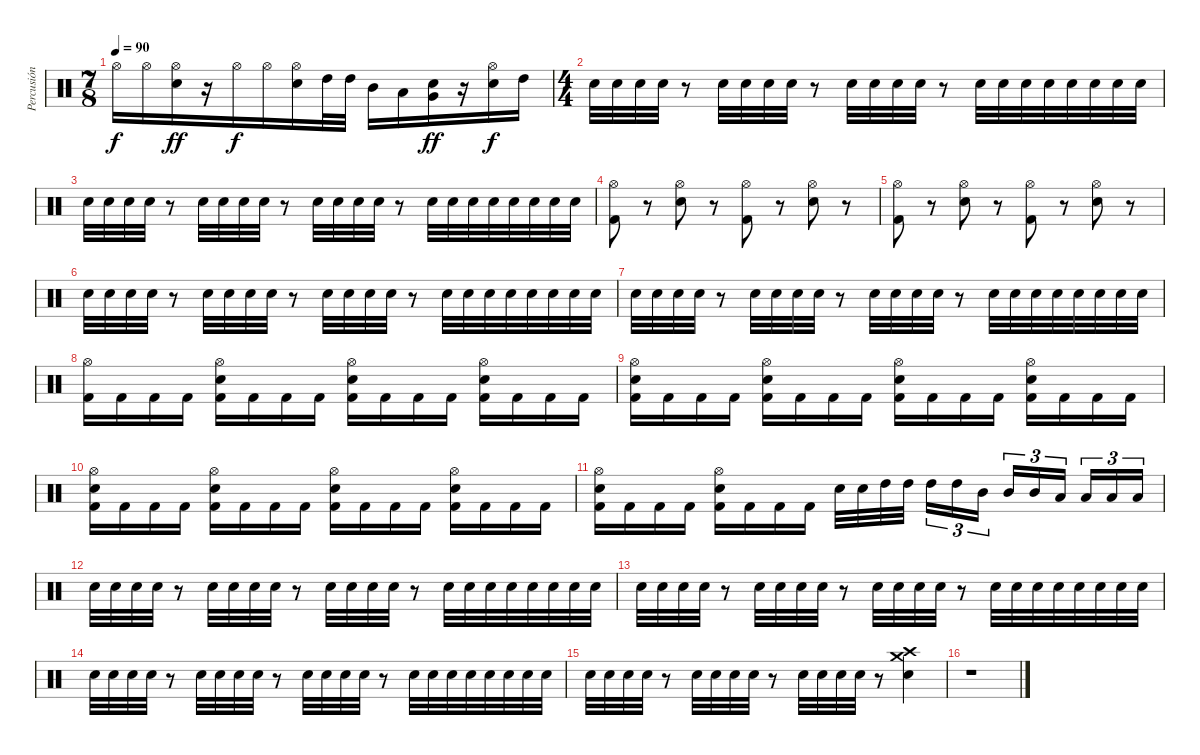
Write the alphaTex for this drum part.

\track ("Percusión" "Percusión") {instrument percussion}
\staff {score}
\articulation defaults
\ts (7 8)
\tempo 90
\clef neutral
\ks c "Hi-Hat (open)".16{dy f} "Hi-Hat (open)".16
("Hi-Hat (open)" "Electric Snare (hit)").16{dy ff} r.16 "Hi-Hat (open)".16{dy f} "Hi-Hat (open)".16 ("Hi-Hat (open)" "Electric Snare (hit)").16 "High Tom (hit)".32 "High Tom (hit)".32 "Mid Tom (hit)".16 "Low Tom (hit)".16 ("Electric Snare (hit)" "Very Low Tom (hit)").16{dy ff} r.16 ("Hi-Hat (open)" "Electric Snare (hit)").16{dy f} "High Tom (hit)".16 |
\ts (4 4)
"Electric Snare (hit)".32 "Electric Snare (hit)".32 "Electric Snare (hit)".32 "Electric Snare (hit)".32 r.8 "Electric Snare (hit)".32 "Electric Snare (hit)".32 "Electric Snare (hit)".32 "Electric Snare (hit)".32 r.8 "Electric Snare (hit)".32 "Electric Snare (hit)".32 "Electric Snare (hit)".32 "Electric Snare (hit)".32 r.8 "Electric Snare (hit)".32 "Electric Snare (hit)".32 "Electric Snare (hit)".32 "Electric Snare (hit)".32 "Electric Snare (hit)".32 "Electric Snare (hit)".32 "Electric Snare (hit)".32 "Electric Snare (hit)".32 |
"Electric Snare (hit)".32 "Electric Snare (hit)".32 "Electric Snare (hit)".32 "Electric Snare (hit)".32 r.8 "Electric Snare (hit)".32 "Electric Snare (hit)".32 "Electric Snare (hit)".32 "Electric Snare (hit)".32 r.8 "Electric Snare (hit)".32 "Electric Snare (hit)".32 "Electric Snare (hit)".32 "Electric Snare (hit)".32 r.8 "Electric Snare (hit)".32 "Electric Snare (hit)".32 "Electric Snare (hit)".32 "Electric Snare (hit)".32 "Electric Snare (hit)".32 "Electric Snare (hit)".32 "Electric Snare (hit)".32 "Electric Snare (hit)".32 |
("Hi-Hat (open)" "Kick (hit) 2").8 r.8 ("Hi-Hat (open)" "Electric Snare (hit)").8 r.8 ("Hi-Hat (open)" "Kick (hit) 2").8 r.8 ("Hi-Hat (open)" "Electric Snare (hit)").8 r.8 |
("Hi-Hat (open)" "Kick (hit) 2").8 r.8 ("Hi-Hat (open)" "Electric Snare (hit)").8 r.8 ("Hi-Hat (open)" "Kick (hit) 2").8 r.8 ("Hi-Hat (open)" "Electric Snare (hit)").8 r.8 |
"Electric Snare (hit)".32 "Electric Snare (hit)".32 "Electric Snare (hit)".32 "Electric Snare (hit)".32 r.8 "Electric Snare (hit)".32 "Electric Snare (hit)".32 "Electric Snare (hit)".32 "Electric Snare (hit)".32 r.8 "Electric Snare (hit)".32 "Electric Snare (hit)".32 "Electric Snare (hit)".32 "Electric Snare (hit)".32 r.8 "Electric Snare (hit)".32 "Electric Snare (hit)".32 "Electric Snare (hit)".32 "Electric Snare (hit)".32 "Electric Snare (hit)".32 "Electric Snare (hit)".32 "Electric Snare (hit)".32 "Electric Snare (hit)".32 |
"Electric Snare (hit)".32 "Electric Snare (hit)".32 "Electric Snare (hit)".32 "Electric Snare (hit)".32 r.8 "Electric Snare (hit)".32 "Electric Snare (hit)".32 "Electric Snare (hit)".32 "Electric Snare (hit)".32 r.8 "Electric Snare (hit)".32 "Electric Snare (hit)".32 "Electric Snare (hit)".32 "Electric Snare (hit)".32 r.8 "Electric Snare (hit)".32 "Electric Snare (hit)".32 "Electric Snare (hit)".32 "Electric Snare (hit)".32 "Electric Snare (hit)".32 "Electric Snare (hit)".32 "Electric Snare (hit)".32 "Electric Snare (hit)".32 |
("Hi-Hat (open)" "Kick (hit) 2").16 "Kick (hit) 2".16 "Kick (hit) 2".16 "Kick (hit) 2".16 ("Hi-Hat (open)" "Electric Snare (hit)" "Kick (hit) 2").16 "Kick (hit) 2".16 "Kick (hit) 2".16 "Kick (hit) 2".16 ("Hi-Hat (open)" "Electric Snare (hit)" "Kick (hit) 2").16 "Kick (hit) 2".16 "Kick (hit) 2".16 "Kick (hit) 2".16 ("Hi-Hat (open)" "Electric Snare (hit)" "Kick (hit) 2").16 "Kick (hit) 2".16 "Kick (hit) 2".16 "Kick (hit) 2".16 |
("Hi-Hat (open)" "Electric Snare (hit)" "Kick (hit) 2").16 "Kick (hit) 2".16 "Kick (hit) 2".16 "Kick (hit) 2".16 ("Hi-Hat (open)" "Electric Snare (hit)" "Kick (hit) 2").16 "Kick (hit) 2".16 "Kick (hit) 2".16 "Kick (hit) 2".16 ("Hi-Hat (open)" "Electric Snare (hit)" "Kick (hit) 2").16 "Kick (hit) 2".16 "Kick (hit) 2".16 "Kick (hit) 2".16 ("Hi-Hat (open)" "Electric Snare (hit)" "Kick (hit) 2").16 "Kick (hit) 2".16 "Kick (hit) 2".16 "Kick (hit) 2".16 |
("Hi-Hat (open)" "Electric Snare (hit)" "Kick (hit) 2").16 "Kick (hit) 2".16 "Kick (hit) 2".16 "Kick (hit) 2".16 ("Hi-Hat (open)" "Electric Snare (hit)" "Kick (hit) 2").16 "Kick (hit) 2".16 "Kick (hit) 2".16 "Kick (hit) 2".16 ("Hi-Hat (open)" "Electric Snare (hit)" "Kick (hit) 2").16 "Kick (hit) 2".16 "Kick (hit) 2".16 "Kick (hit) 2".16 ("Hi-Hat (open)" "Electric Snare (hit)" "Kick (hit) 2").16 "Kick (hit) 2".16 "Kick (hit) 2".16 "Kick (hit) 2".16 |
("Hi-Hat (open)" "Electric Snare (hit)" "Kick (hit) 2").16 "Kick (hit) 2".16 "Kick (hit) 2".16 "Kick (hit) 2".16 ("Hi-Hat (open)" "Electric Snare (hit)" "Kick (hit) 2").16 "Kick (hit) 2".16 "Kick (hit) 2".16 "Kick (hit) 2".16 "Electric Snare (hit)".32 "Electric Snare (hit)".32 "High Tom (hit)".32 "High Tom (hit)".32 "High Tom (hit)".16{tu (3 2)} "High Tom (hit)".16{tu (3 2)} "Mid Tom (hit)".16{tu (3 2)} "Mid Tom (hit)".16{tu (3 2)} "Mid Tom (hit)".16{tu (3 2)} "Low Tom (hit)".16{tu (3 2)} "Low Tom (hit)".16{tu (3 2)} "Low Tom (hit)".16{tu (3 2)} "Low Tom (hit)".16{tu (3 2)} |
"Electric Snare (hit)".32 "Electric Snare (hit)".32 "Electric Snare (hit)".32 "Electric Snare (hit)".32 r.8 "Electric Snare (hit)".32 "Electric Snare (hit)".32 "Electric Snare (hit)".32 "Electric Snare (hit)".32 r.8 "Electric Snare (hit)".32 "Electric Snare (hit)".32 "Electric Snare (hit)".32 "Electric Snare (hit)".32 r.8 "Electric Snare (hit)".32 "Electric Snare (hit)".32 "Electric Snare (hit)".32 "Electric Snare (hit)".32 "Electric Snare (hit)".32 "Electric Snare (hit)".32 "Electric Snare (hit)".32 "Electric Snare (hit)".32 |
"Electric Snare (hit)".32 "Electric Snare (hit)".32 "Electric Snare (hit)".32 "Electric Snare (hit)".32 r.8 "Electric Snare (hit)".32 "Electric Snare (hit)".32 "Electric Snare (hit)".32 "Electric Snare (hit)".32 r.8 "Electric Snare (hit)".32 "Electric Snare (hit)".32 "Electric Snare (hit)".32 "Electric Snare (hit)".32 r.8 "Electric Snare (hit)".32 "Electric Snare (hit)".32 "Electric Snare (hit)".32 "Electric Snare (hit)".32 "Electric Snare (hit)".32 "Electric Snare (hit)".32 "Electric Snare (hit)".32 "Electric Snare (hit)".32 |
"Electric Snare (hit)".32 "Electric Snare (hit)".32 "Electric Snare (hit)".32 "Electric Snare (hit)".32 r.8 "Electric Snare (hit)".32 "Electric Snare (hit)".32 "Electric Snare (hit)".32 "Electric Snare (hit)".32 r.8 "Electric Snare (hit)".32 "Electric Snare (hit)".32 "Electric Snare (hit)".32 "Electric Snare (hit)".32 r.8 "Electric Snare (hit)".32 "Electric Snare (hit)".32 "Electric Snare (hit)".32 "Electric Snare (hit)".32 "Electric Snare (hit)".32 "Electric Snare (hit)".32 "Electric Snare (hit)".32 "Electric Snare (hit)".32 |
"Electric Snare (hit)".32 "Electric Snare (hit)".32 "Electric Snare (hit)".32 "Electric Snare (hit)".32 r.8 "Electric Snare (hit)".32 "Electric Snare (hit)".32 "Electric Snare (hit)".32 "Electric Snare (hit)".32 r.8 "Electric Snare (hit)".32 "Electric Snare (hit)".32 "Electric Snare (hit)".32 "Electric Snare (hit)".32 r.8 ("Crash high (hit)" "Crash medium (hit)" "Electric Snare (hit)").4 |
r.1
